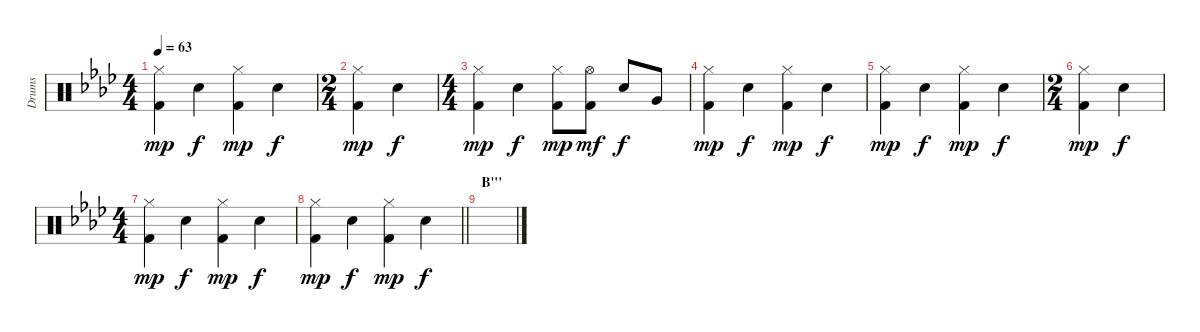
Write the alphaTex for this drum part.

\track ("Drums" "Drums") {instrument percussion}
\staff {score}
\articulation defaults
\ts (4 4)
\tempo 63
\clef neutral
\ks fminor
("Hi-Hat (closed)" "Kick (hit) 2").4{dy mp} "Electric Snare (hit)".4{dy f} ("Hi-Hat (closed)" "Kick (hit) 2").4{dy mp} "Electric Snare (hit)".4{dy f} |
\ts (2 4)
("Hi-Hat (closed)" "Kick (hit) 2").4{dy mp} "Electric Snare (hit)".4{dy f} |
\ts (4 4)
("Hi-Hat (closed)" "Kick (hit) 2").4{dy mp} "Electric Snare (hit)".4{dy f} ("Hi-Hat (closed)" "Kick (hit) 2").8{dy mp} ("Hi-Hat (open)" "Kick (hit) 2").8{dy mf} "Electric Snare (hit)".8{dy f} "Very Low Tom (hit)".8 |
("Hi-Hat (closed)" "Kick (hit) 2").4{dy mp} "Electric Snare (hit)".4{dy f} ("Hi-Hat (closed)" "Kick (hit) 2").4{dy mp} "Electric Snare (hit)".4{dy f} |
("Hi-Hat (closed)" "Kick (hit) 2").4{dy mp} "Electric Snare (hit)".4{dy f} ("Hi-Hat (closed)" "Kick (hit) 2").4{dy mp} "Electric Snare (hit)".4{dy f} |
\ts (2 4)
("Hi-Hat (closed)" "Kick (hit) 2").4{dy mp} "Electric Snare (hit)".4{dy f} |
\ts (4 4)
("Hi-Hat (closed)" "Kick (hit) 2").4{dy mp} "Electric Snare (hit)".4{dy f} ("Hi-Hat (closed)" "Kick (hit) 2").4{dy mp} "Electric Snare (hit)".4{dy f} |
\barLineRight lightlight
("Hi-Hat (closed)" "Kick (hit) 2").4{dy mp} "Electric Snare (hit)".4{dy f} ("Hi-Hat (closed)" "Kick (hit) 2").4{dy mp} "Electric Snare (hit)".4{dy f} |
\section ("" "B'''")
